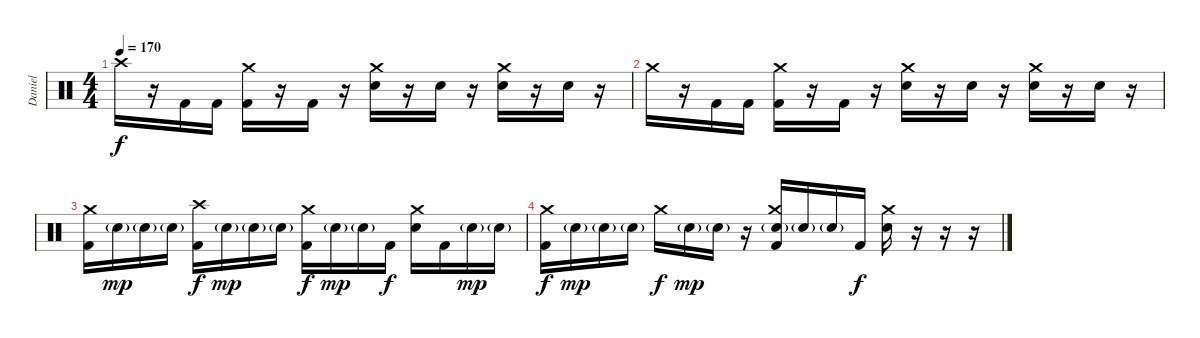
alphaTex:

\track ("Daniel" "Daniel") {instrument percussion}
\staff {score}
\articulation defaults
\ts (4 4)
\tempo 170
\clef neutral
\ks c "Crash high (hit)".16{dy f}
r.16 "Kick (hit) 2".16 "Kick (hit) 2".16 ("Crash medium (hit)" "Kick (hit) 2").16 r.16 "Kick (hit) 2".16 r.16 ("Crash medium (hit)" "Snare (hit) 2").16 r.16 "Snare (hit) 2".16 r.16 ("Crash medium (hit)" "Snare (hit) 2").16 r.16 "Snare (hit) 2".16 r.16 |
"Crash medium (hit)".16 r.16 "Kick (hit) 2".16 "Kick (hit) 2".16 ("Crash medium (hit)" "Kick (hit) 2").16 r.16 "Kick (hit) 2".16 r.16 ("Crash medium (hit)" "Snare (hit) 2").16 r.16 "Snare (hit) 2".16 r.16 ("Crash medium (hit)" "Snare (hit) 2").16 r.16 "Snare (hit) 2".16 r.16 |
("Crash medium (hit)" "Kick (hit) 2").16 "Snare (hit) 2"{g}.16{dy mp} "Snare (hit) 2"{g}.16 "Snare (hit) 2"{g}.16 ("Crash high (hit)" "Kick (hit) 2").16{dy f} "Snare (hit) 2"{g}.16{dy mp} "Snare (hit) 2"{g}.16 "Snare (hit) 2"{g}.16 ("Crash medium (hit)" "Kick (hit) 2").16{dy f} "Snare (hit) 2"{g}.16{dy mp} "Snare (hit) 2"{g}.16 "Kick (hit) 2".16{dy f} ("Crash medium (hit)" "Snare (hit) 2").16 "Kick (hit) 2".16 "Snare (hit) 2"{g}.16{dy mp} "Snare (hit) 2"{g}.16 |
("Crash medium (hit)" "Kick (hit) 2").16{dy f} "Snare (hit) 2"{g}.16{dy mp} "Snare (hit) 2"{g}.16 "Snare (hit) 2"{g}.16 "Crash medium (hit)".16{dy f} "Snare (hit) 2"{g}.16{dy mp} "Snare (hit) 2"{g}.16 r.16 ("Crash medium (hit)" "Snare (hit) 2"{g} "Kick (hit) 2").16 "Snare (hit) 2"{g}.16 "Snare (hit) 2"{g}.16 "Kick (hit) 2".16{dy f} ("Crash medium (hit)" "Snare (hit) 2").16 r.16 r.16 r.16
